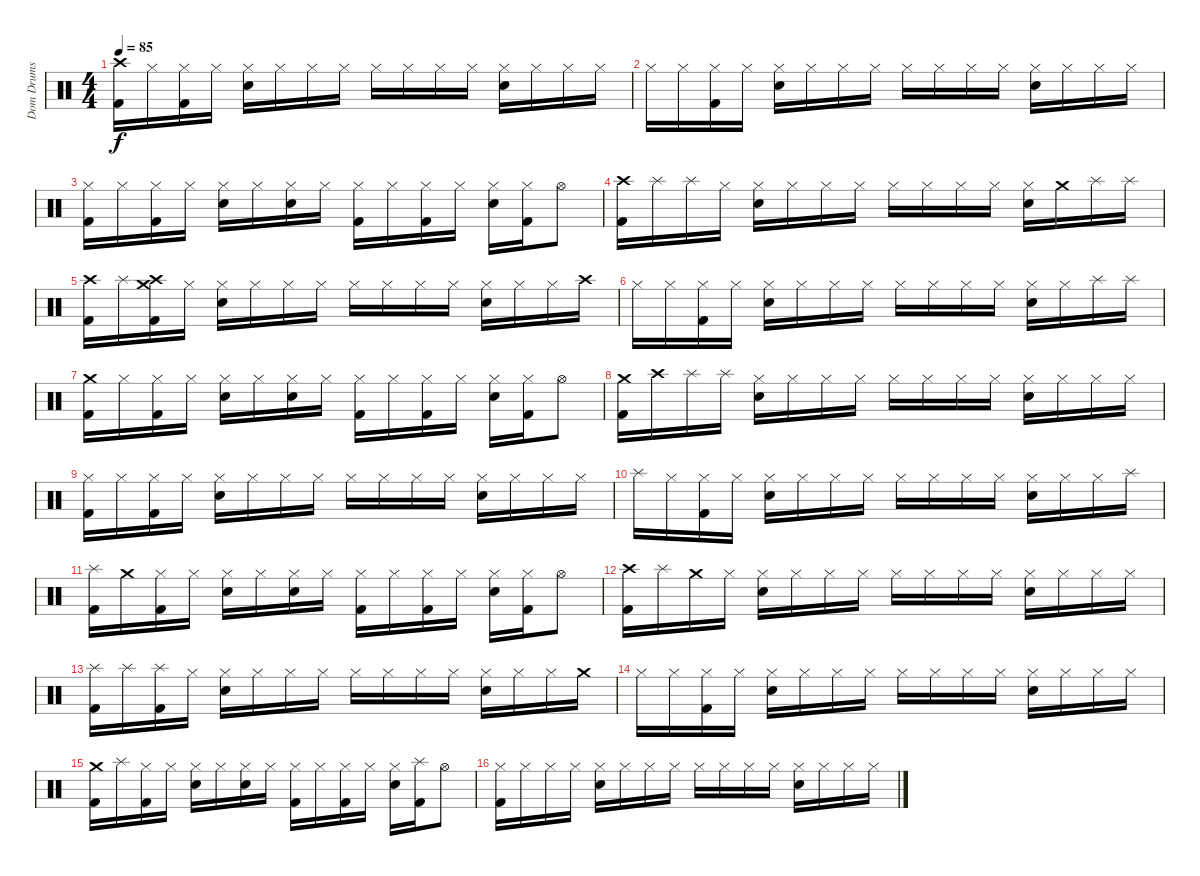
\track ("Dom Drums" "Dom Drums") {instrument percussion}
\staff {score}
\articulation defaults
\ts (4 4)
\tempo 85
\clef neutral
\ks c
("Crash high (hit)" "Kick (hit) 2").16{dy f} "Hi-Hat (closed)".16 ("Hi-Hat (closed)" "Kick (hit) 2").16 "Hi-Hat (closed)".16 ("Hi-Hat (closed)" "Snare (hit) 2").16 "Hi-Hat (closed)".16 "Hi-Hat (closed)".16 "Hi-Hat (closed)".16 "Hi-Hat (closed)".16 "Hi-Hat (closed)".16 "Hi-Hat (closed)".16 "Hi-Hat (closed)".16 ("Hi-Hat (closed)" "Snare (hit) 2").16 "Hi-Hat (closed)".16 "Hi-Hat (closed)".16 "Hi-Hat (closed)".16 |
"Hi-Hat (closed)".16 "Hi-Hat (closed)".16 ("Hi-Hat (closed)" "Kick (hit) 2").16 "Hi-Hat (closed)".16 ("Hi-Hat (closed)" "Snare (hit) 2").16 "Hi-Hat (closed)".16 "Hi-Hat (closed)".16 "Hi-Hat (closed)".16 "Hi-Hat (closed)".16 "Hi-Hat (closed)".16 "Hi-Hat (closed)".16 "Hi-Hat (closed)".16 ("Hi-Hat (closed)" "Snare (hit) 2").16 "Hi-Hat (closed)".16 "Hi-Hat (closed)".16 "Hi-Hat (closed)".16 |
("Hi-Hat (closed)" "Kick (hit) 2").16 "Hi-Hat (closed)".16 ("Hi-Hat (closed)" "Kick (hit) 2").16 "Hi-Hat (closed)".16 ("Hi-Hat (closed)" "Snare (hit) 2").16 "Hi-Hat (closed)".16 ("Hi-Hat (closed)" "Snare (hit) 2").16 "Hi-Hat (closed)".16 ("Hi-Hat (closed)" "Kick (hit) 2").16 "Hi-Hat (closed)".16 ("Hi-Hat (closed)" "Kick (hit) 2").16 "Hi-Hat (closed)".16 ("Hi-Hat (closed)" "Snare (hit) 2").16 ("Hi-Hat (closed)" "Kick (hit) 2").16 "Hi-Hat (open)".8 |
("Crash high (hit)" "Kick (hit) 2").16 "Splash (hit)".16 "Splash (hit)".16 "Hi-Hat (closed)".16 ("Hi-Hat (closed)" "Snare (hit) 2").16 "Hi-Hat (closed)".16 "Hi-Hat (closed)".16 "Hi-Hat (closed)".16 "Hi-Hat (closed)".16 "Hi-Hat (closed)".16 "Hi-Hat (closed)".16 "Hi-Hat (closed)".16 ("Hi-Hat (closed)" "Snare (hit) 2").16 "Crash medium (hit)".16 "Splash (hit)".16 "Splash (hit)".16 |
("Crash high (hit)" "Kick (hit) 2").16 "Splash (hit)".16 ("Crash high (hit)" "Crash medium (hit)" "Kick (hit) 2").16 "Hi-Hat (closed)".16 ("Hi-Hat (closed)" "Snare (hit) 2").16 "Hi-Hat (closed)".16 "Hi-Hat (closed)".16 "Hi-Hat (closed)".16 "Hi-Hat (closed)".16 "Hi-Hat (closed)".16 "Hi-Hat (closed)".16 "Hi-Hat (closed)".16 ("Hi-Hat (closed)" "Snare (hit) 2").16 "Hi-Hat (closed)".16 "Hi-Hat (closed)".16 "Crash high (hit)".16 |
"Hi-Hat (closed)".16 "Hi-Hat (closed)".16 ("Hi-Hat (closed)" "Kick (hit) 2").16 "Hi-Hat (closed)".16 ("Hi-Hat (closed)" "Snare (hit) 2").16 "Hi-Hat (closed)".16 "Hi-Hat (closed)".16 "Hi-Hat (closed)".16 "Hi-Hat (closed)".16 "Hi-Hat (closed)".16 "Hi-Hat (closed)".16 "Hi-Hat (closed)".16 ("Hi-Hat (closed)" "Snare (hit) 2").16 "Hi-Hat (closed)".16 "Splash (hit)".16 "Splash (hit)".16 |
("Crash medium (hit)" "Kick (hit) 2").16 "Hi-Hat (closed)".16 ("Hi-Hat (closed)" "Kick (hit) 2").16 "Hi-Hat (closed)".16 ("Hi-Hat (closed)" "Snare (hit) 2").16 "Hi-Hat (closed)".16 ("Hi-Hat (closed)" "Snare (hit) 2").16 "Hi-Hat (closed)".16 ("Hi-Hat (closed)" "Kick (hit) 2").16 "Hi-Hat (closed)".16 ("Hi-Hat (closed)" "Kick (hit) 2").16 "Hi-Hat (closed)".16 ("Hi-Hat (closed)" "Snare (hit) 2").16 ("Hi-Hat (closed)" "Kick (hit) 2").16 "Hi-Hat (open)".8 |
("Crash medium (hit)" "Kick (hit) 2").16 "Crash high (hit)".16 "Splash (hit)".16 "Splash (hit)".16 ("Hi-Hat (closed)" "Snare (hit) 2").16 "Hi-Hat (closed)".16 "Hi-Hat (closed)".16 "Hi-Hat (closed)".16 "Hi-Hat (closed)".16 "Hi-Hat (closed)".16 "Hi-Hat (closed)".16 "Hi-Hat (closed)".16 ("Hi-Hat (closed)" "Snare (hit) 2").16 "Hi-Hat (closed)".16 "Hi-Hat (closed)".16 "Hi-Hat (closed)".16 |
("Hi-Hat (closed)" "Kick (hit) 2").16 "Hi-Hat (closed)".16 ("Hi-Hat (closed)" "Kick (hit) 2").16 "Hi-Hat (closed)".16 ("Hi-Hat (closed)" "Snare (hit) 2").16 "Hi-Hat (closed)".16 "Hi-Hat (closed)".16 "Hi-Hat (closed)".16 "Hi-Hat (closed)".16 "Hi-Hat (closed)".16 "Hi-Hat (closed)".16 "Hi-Hat (closed)".16 ("Hi-Hat (closed)" "Snare (hit) 2").16 "Hi-Hat (closed)".16 "Hi-Hat (closed)".16 "Hi-Hat (closed)".16 |
"Splash (hit)".16 "Hi-Hat (closed)".16 ("Hi-Hat (closed)" "Kick (hit) 2").16 "Hi-Hat (closed)".16 ("Hi-Hat (closed)" "Snare (hit) 2").16 "Hi-Hat (closed)".16 "Hi-Hat (closed)".16 "Hi-Hat (closed)".16 "Hi-Hat (closed)".16 "Hi-Hat (closed)".16 "Hi-Hat (closed)".16 "Hi-Hat (closed)".16 ("Hi-Hat (closed)" "Snare (hit) 2").16 "Hi-Hat (closed)".16 "Hi-Hat (closed)".16 "Splash (hit)".16 |
("Splash (hit)" "Kick (hit) 2").16 "Crash medium (hit)".16 ("Hi-Hat (closed)" "Kick (hit) 2").16 "Hi-Hat (closed)".16 ("Hi-Hat (closed)" "Snare (hit) 2").16 "Hi-Hat (closed)".16 ("Hi-Hat (closed)" "Snare (hit) 2").16 "Hi-Hat (closed)".16 ("Hi-Hat (closed)" "Kick (hit) 2").16 "Hi-Hat (closed)".16 ("Hi-Hat (closed)" "Kick (hit) 2").16 "Hi-Hat (closed)".16 ("Hi-Hat (closed)" "Snare (hit) 2").16 ("Hi-Hat (closed)" "Kick (hit) 2").16 "Hi-Hat (open)".8 |
("Crash high (hit)" "Kick (hit) 2").16 "Splash (hit)".16 "Crash medium (hit)".16 "Hi-Hat (closed)".16 ("Hi-Hat (closed)" "Snare (hit) 2").16 "Hi-Hat (closed)".16 "Hi-Hat (closed)".16 "Hi-Hat (closed)".16 "Hi-Hat (closed)".16 "Hi-Hat (closed)".16 "Hi-Hat (closed)".16 "Hi-Hat (closed)".16 ("Hi-Hat (closed)" "Snare (hit) 2").16 "Hi-Hat (closed)".16 "Hi-Hat (closed)".16 "Hi-Hat (closed)".16 |
("Splash (hit)" "Kick (hit) 2").16 "Splash (hit)".16 ("Splash (hit)" "Kick (hit) 2").16 "Hi-Hat (closed)".16 ("Hi-Hat (closed)" "Snare (hit) 2").16 "Hi-Hat (closed)".16 "Hi-Hat (closed)".16 "Hi-Hat (closed)".16 "Hi-Hat (closed)".16 "Hi-Hat (closed)".16 "Hi-Hat (closed)".16 "Hi-Hat (closed)".16 ("Hi-Hat (closed)" "Snare (hit) 2").16 "Hi-Hat (closed)".16 "Hi-Hat (closed)".16 "Crash medium (hit)".16 |
"Hi-Hat (closed)".16 "Hi-Hat (closed)".16 ("Hi-Hat (closed)" "Kick (hit) 2").16 "Hi-Hat (closed)".16 ("Hi-Hat (closed)" "Snare (hit) 2").16 "Hi-Hat (closed)".16 "Hi-Hat (closed)".16 "Hi-Hat (closed)".16 "Hi-Hat (closed)".16 "Hi-Hat (closed)".16 "Hi-Hat (closed)".16 "Hi-Hat (closed)".16 ("Hi-Hat (closed)" "Snare (hit) 2").16 "Hi-Hat (closed)".16 "Hi-Hat (closed)".16 "Hi-Hat (closed)".16 |
("Crash medium (hit)" "Kick (hit) 2").16 "Splash (hit)".16 ("Hi-Hat (closed)" "Kick (hit) 2").16 "Hi-Hat (closed)".16 ("Hi-Hat (closed)" "Snare (hit) 2").16 "Hi-Hat (closed)".16 ("Hi-Hat (closed)" "Snare (hit) 2").16 "Hi-Hat (closed)".16 ("Hi-Hat (closed)" "Kick (hit) 2").16 "Hi-Hat (closed)".16 ("Hi-Hat (closed)" "Kick (hit) 2").16 "Hi-Hat (closed)".16 ("Hi-Hat (closed)" "Snare (hit) 2").16 ("Splash (hit)" "Kick (hit) 2").16 "Hi-Hat (open)".8 |
("Hi-Hat (closed)" "Kick (hit) 2").16 "Hi-Hat (closed)".16 "Hi-Hat (closed)".16 "Hi-Hat (closed)".16 ("Hi-Hat (closed)" "Snare (hit) 2").16 "Hi-Hat (closed)".16 "Hi-Hat (closed)".16 "Hi-Hat (closed)".16 "Hi-Hat (closed)".16 "Hi-Hat (closed)".16 "Hi-Hat (closed)".16 "Hi-Hat (closed)".16 ("Hi-Hat (closed)" "Snare (hit) 2").16 "Hi-Hat (closed)".16 "Hi-Hat (closed)".16 "Hi-Hat (closed)".16
